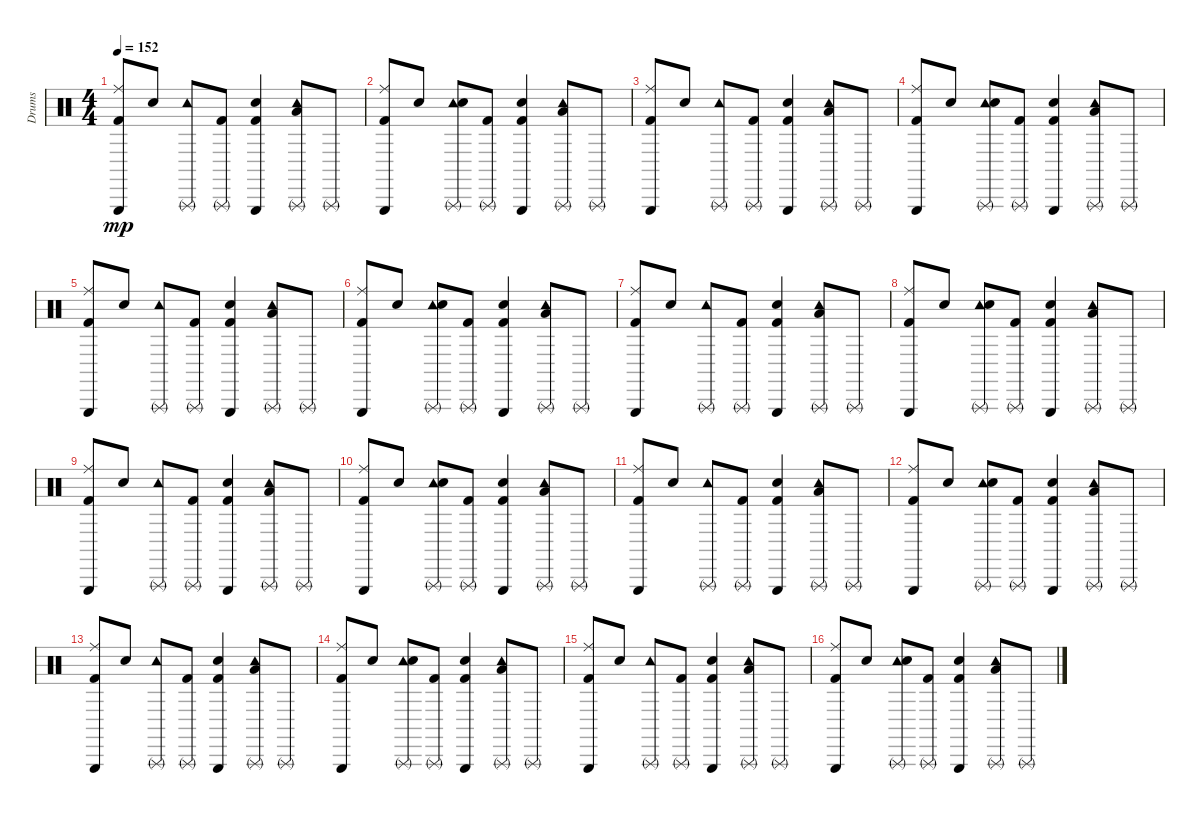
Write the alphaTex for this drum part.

\track ("Drums" "Drums") {instrument percussion}
\staff {score}
\articulation defaults
\ts (4 4)
\tempo 152
\clef neutral
\ks c
("Triangle (hit)" "Ride (middle)" "Kick (hit) 2").8{dy mp} "Snare (hit) 2".8 ("Triangle (rnute)" "Tambourine (hit)").8 ("Triangle (rnute)" "Kick (hit) 2").8 ("Triangle (hit)" "Kick (hit) 2" "Snare (hit) 2").4 ("Tambourine (hit)" "Low Tom (hit)" "Triangle (rnute)").8 "Triangle (rnute)".8 |
("Triangle (hit)" "Ride (middle)" "Kick (hit) 2").8 "Snare (hit) 2".8 ("Triangle (rnute)" "Tambourine (hit)" "Snare (hit) 2").8 ("Triangle (rnute)" "Kick (hit) 2").8 ("Triangle (hit)" "Kick (hit) 2" "Snare (hit) 2").4 ("Tambourine (hit)" "Low Tom (hit)" "Triangle (rnute)").8 "Triangle (rnute)".8 |
("Triangle (hit)" "Ride (middle)" "Kick (hit) 2").8 "Snare (hit) 2".8 ("Triangle (rnute)" "Tambourine (hit)").8 ("Triangle (rnute)" "Kick (hit) 2").8 ("Triangle (hit)" "Kick (hit) 2" "Snare (hit) 2").4 ("Tambourine (hit)" "Low Tom (hit)" "Triangle (rnute)").8 "Triangle (rnute)".8 |
("Triangle (hit)" "Ride (middle)" "Kick (hit) 2").8 "Snare (hit) 2".8 ("Triangle (rnute)" "Tambourine (hit)" "Snare (hit) 2").8 ("Triangle (rnute)" "Kick (hit) 2").8 ("Triangle (hit)" "Kick (hit) 2" "Snare (hit) 2").4 ("Tambourine (hit)" "Low Tom (hit)" "Triangle (rnute)").8 "Triangle (rnute)".8 |
("Triangle (hit)" "Ride (middle)" "Kick (hit) 2").8 "Snare (hit) 2".8 ("Triangle (rnute)" "Tambourine (hit)").8 ("Triangle (rnute)" "Kick (hit) 2").8 ("Triangle (hit)" "Kick (hit) 2" "Snare (hit) 2").4 ("Tambourine (hit)" "Low Tom (hit)" "Triangle (rnute)").8 "Triangle (rnute)".8 |
("Triangle (hit)" "Ride (middle)" "Kick (hit) 2").8 "Snare (hit) 2".8 ("Triangle (rnute)" "Tambourine (hit)" "Snare (hit) 2").8 ("Triangle (rnute)" "Kick (hit) 2").8 ("Triangle (hit)" "Kick (hit) 2" "Snare (hit) 2").4 ("Tambourine (hit)" "Low Tom (hit)" "Triangle (rnute)").8 "Triangle (rnute)".8 |
("Triangle (hit)" "Ride (middle)" "Kick (hit) 2").8 "Snare (hit) 2".8 ("Triangle (rnute)" "Tambourine (hit)").8 ("Triangle (rnute)" "Kick (hit) 2").8 ("Triangle (hit)" "Kick (hit) 2" "Snare (hit) 2").4 ("Tambourine (hit)" "Low Tom (hit)" "Triangle (rnute)").8 "Triangle (rnute)".8 |
("Triangle (hit)" "Ride (middle)" "Kick (hit) 2").8 "Snare (hit) 2".8 ("Triangle (rnute)" "Tambourine (hit)" "Snare (hit) 2").8 ("Triangle (rnute)" "Kick (hit) 2").8 ("Triangle (hit)" "Kick (hit) 2" "Snare (hit) 2").4 ("Tambourine (hit)" "Low Tom (hit)" "Triangle (rnute)").8 "Triangle (rnute)".8 |
("Triangle (hit)" "Ride (middle)" "Kick (hit) 2").8 "Snare (hit) 2".8 ("Triangle (rnute)" "Tambourine (hit)").8 ("Triangle (rnute)" "Kick (hit) 2").8 ("Triangle (hit)" "Kick (hit) 2" "Snare (hit) 2").4 ("Tambourine (hit)" "Low Tom (hit)" "Triangle (rnute)").8 "Triangle (rnute)".8 |
("Triangle (hit)" "Ride (middle)" "Kick (hit) 2").8 "Snare (hit) 2".8 ("Triangle (rnute)" "Tambourine (hit)" "Snare (hit) 2").8 ("Triangle (rnute)" "Kick (hit) 2").8 ("Triangle (hit)" "Kick (hit) 2" "Snare (hit) 2").4 ("Tambourine (hit)" "Low Tom (hit)" "Triangle (rnute)").8 "Triangle (rnute)".8 |
("Triangle (hit)" "Ride (middle)" "Kick (hit) 2").8 "Snare (hit) 2".8 ("Triangle (rnute)" "Tambourine (hit)").8 ("Triangle (rnute)" "Kick (hit) 2").8 ("Triangle (hit)" "Kick (hit) 2" "Snare (hit) 2").4 ("Tambourine (hit)" "Low Tom (hit)" "Triangle (rnute)").8 "Triangle (rnute)".8 |
("Triangle (hit)" "Ride (middle)" "Kick (hit) 2").8 "Snare (hit) 2".8 ("Triangle (rnute)" "Tambourine (hit)" "Snare (hit) 2").8 ("Triangle (rnute)" "Kick (hit) 2").8 ("Triangle (hit)" "Kick (hit) 2" "Snare (hit) 2").4 ("Tambourine (hit)" "Low Tom (hit)" "Triangle (rnute)").8 "Triangle (rnute)".8 |
("Triangle (hit)" "Ride (middle)" "Kick (hit) 2").8 "Snare (hit) 2".8 ("Triangle (rnute)" "Tambourine (hit)").8 ("Triangle (rnute)" "Kick (hit) 2").8 ("Triangle (hit)" "Kick (hit) 2" "Snare (hit) 2").4 ("Tambourine (hit)" "Low Tom (hit)" "Triangle (rnute)").8 "Triangle (rnute)".8 |
("Triangle (hit)" "Ride (middle)" "Kick (hit) 2").8 "Snare (hit) 2".8 ("Triangle (rnute)" "Tambourine (hit)" "Snare (hit) 2").8 ("Triangle (rnute)" "Kick (hit) 2").8 ("Triangle (hit)" "Kick (hit) 2" "Snare (hit) 2").4 ("Tambourine (hit)" "Low Tom (hit)" "Triangle (rnute)").8 "Triangle (rnute)".8 |
("Triangle (hit)" "Ride (middle)" "Kick (hit) 2").8 "Snare (hit) 2".8 ("Triangle (rnute)" "Tambourine (hit)").8 ("Triangle (rnute)" "Kick (hit) 2").8 ("Triangle (hit)" "Kick (hit) 2" "Snare (hit) 2").4 ("Tambourine (hit)" "Low Tom (hit)" "Triangle (rnute)").8 "Triangle (rnute)".8 |
("Triangle (hit)" "Ride (middle)" "Kick (hit) 2").8 "Snare (hit) 2".8 ("Triangle (rnute)" "Tambourine (hit)" "Snare (hit) 2").8 ("Triangle (rnute)" "Kick (hit) 2").8 ("Triangle (hit)" "Kick (hit) 2" "Snare (hit) 2").4 ("Tambourine (hit)" "Low Tom (hit)" "Triangle (rnute)").8 "Triangle (rnute)".8
